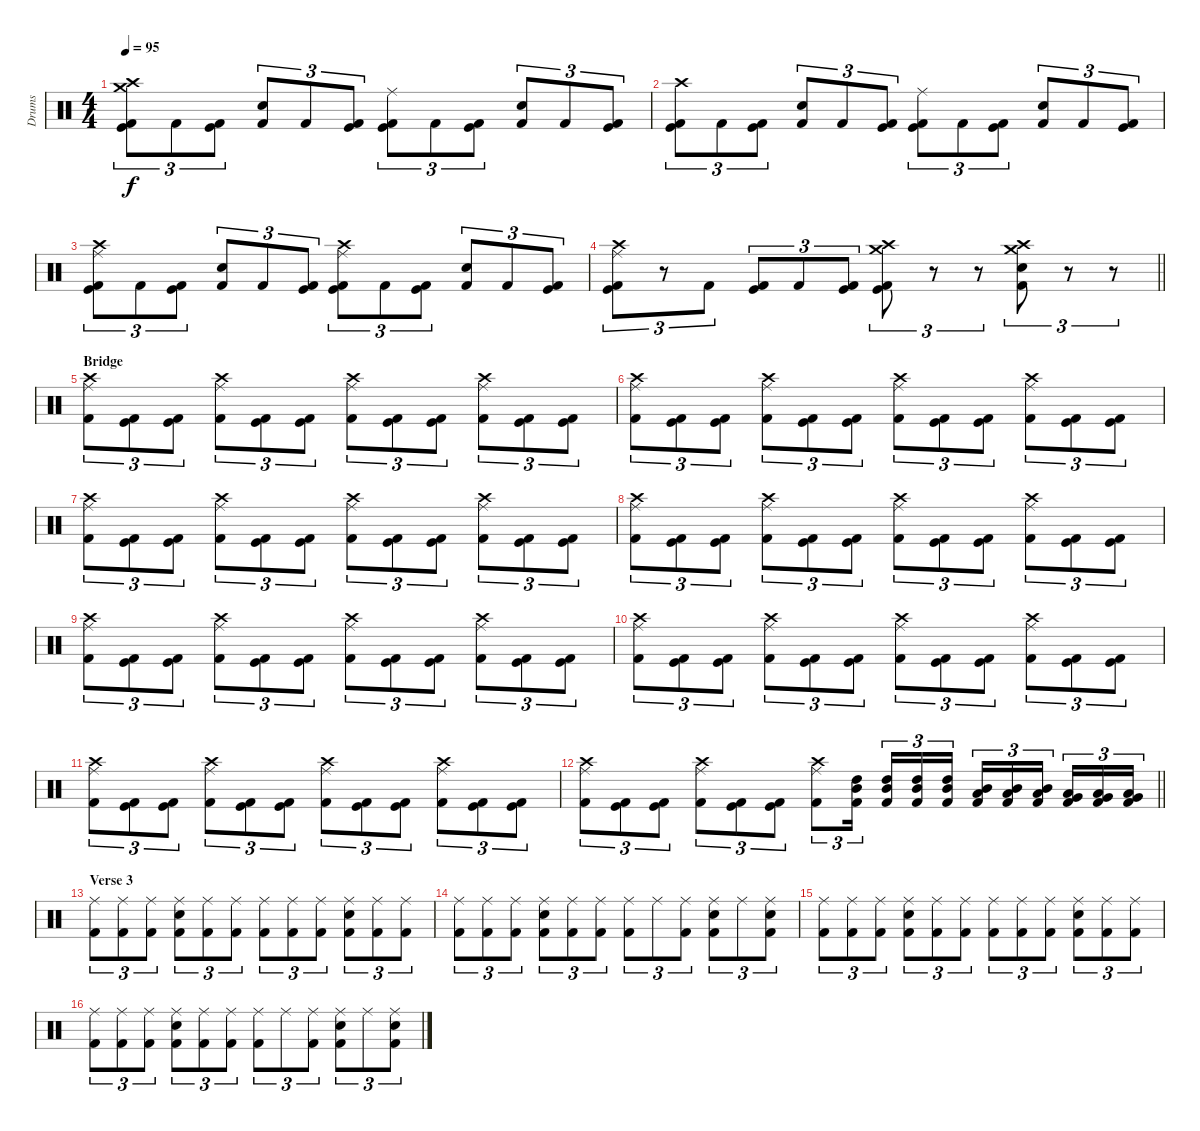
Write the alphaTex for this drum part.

\track ("Drums" "Drums") {instrument percussion}
\staff {score}
\articulation defaults
\ts (4 4)
\tempo 95
\clef neutral
\ks c
("Crash medium (hit)" "Kick (hit)" "Kick (hit) 2" "Crash high (hit)").8{tu (3 2) dy f} "Kick (hit) 2".8{tu (3 2)} ("Kick (hit)" "Kick (hit) 2").8{tu (3 2)} ("Snare (hit) 2" "Kick (hit) 2").8{tu (3 2)} "Kick (hit) 2".8{tu (3 2)} ("Kick (hit)" "Kick (hit) 2").8{tu (3 2)} ("Ride (middle)" "Kick (hit)" "Kick (hit) 2").8{tu (3 2)} "Kick (hit) 2".8{tu (3 2)} ("Kick (hit)" "Kick (hit) 2").8{tu (3 2)} ("Snare (hit) 2" "Kick (hit) 2").8{tu (3 2)} "Kick (hit) 2".8{tu (3 2)} ("Kick (hit)" "Kick (hit) 2").8{tu (3 2)} |
("Kick (hit)" "Kick (hit) 2" "Crash high (hit)").8{tu (3 2)} "Kick (hit) 2".8{tu (3 2)} ("Kick (hit)" "Kick (hit) 2").8{tu (3 2)} ("Snare (hit) 2" "Kick (hit) 2").8{tu (3 2)} "Kick (hit) 2".8{tu (3 2)} ("Kick (hit)" "Kick (hit) 2").8{tu (3 2)} ("Ride (middle)" "Kick (hit)" "Kick (hit) 2").8{tu (3 2)} "Kick (hit) 2".8{tu (3 2)} ("Kick (hit)" "Kick (hit) 2").8{tu (3 2)} ("Snare (hit) 2" "Kick (hit) 2").8{tu (3 2)} "Kick (hit) 2".8{tu (3 2)} ("Kick (hit)" "Kick (hit) 2").8{tu (3 2)} |
("Ride (middle)" "Kick (hit)" "Kick (hit) 2" "Crash high (hit)").8{tu (3 2)} "Kick (hit) 2".8{tu (3 2)} ("Kick (hit)" "Kick (hit) 2").8{tu (3 2)} ("Snare (hit) 2" "Kick (hit) 2").8{tu (3 2)} "Kick (hit) 2".8{tu (3 2)} ("Kick (hit)" "Kick (hit) 2").8{tu (3 2)} ("Ride (middle)" "Kick (hit)" "Kick (hit) 2" "Crash high (hit)").8{tu (3 2)} "Kick (hit) 2".8{tu (3 2)} ("Kick (hit)" "Kick (hit) 2").8{tu (3 2)} ("Snare (hit) 2" "Kick (hit) 2").8{tu (3 2)} "Kick (hit) 2".8{tu (3 2)} ("Kick (hit)" "Kick (hit) 2").8{tu (3 2)} |
\barLineRight lightlight
("Ride (middle)" "Kick (hit)" "Kick (hit) 2" "Crash high (hit)").8{tu (3 2)} r.8{tu (3 2)} "Kick (hit) 2".8{tu (3 2)} ("Kick (hit)" "Kick (hit) 2").8{tu (3 2)} "Kick (hit) 2".8{tu (3 2)} ("Kick (hit)" "Kick (hit) 2").8{tu (3 2)} ("Crash medium (hit)" "Kick (hit)" "Kick (hit) 2" "Crash high (hit)").8{tu (3 2)} r.8{tu (3 2)} r.8{tu (3 2)} ("Crash medium (hit)" "Snare (hit) 2" "Kick (hit) 2" "Crash high (hit)").8{tu (3 2)} r.8{tu (3 2)} r.8{tu (3 2)} |
\section ("" "Bridge")
("Ride (middle)" "Kick (hit) 2" "Crash high (hit)").8{tu (3 2)} ("Kick (hit)" "Kick (hit) 2").8{tu (3 2)} ("Kick (hit)" "Kick (hit) 2").8{tu (3 2)} ("Ride (middle)" "Kick (hit) 2" "Crash high (hit)").8{tu (3 2)} ("Kick (hit)" "Kick (hit) 2").8{tu (3 2)} ("Kick (hit)" "Kick (hit) 2").8{tu (3 2)} ("Ride (middle)" "Kick (hit) 2" "Crash high (hit)").8{tu (3 2)} ("Kick (hit)" "Kick (hit) 2").8{tu (3 2)} ("Kick (hit)" "Kick (hit) 2").8{tu (3 2)} ("Ride (middle)" "Kick (hit) 2" "Crash high (hit)").8{tu (3 2)} ("Kick (hit)" "Kick (hit) 2").8{tu (3 2)} ("Kick (hit)" "Kick (hit) 2").8{tu (3 2)} |
("Ride (middle)" "Kick (hit) 2" "Crash high (hit)").8{tu (3 2)} ("Kick (hit)" "Kick (hit) 2").8{tu (3 2)} ("Kick (hit)" "Kick (hit) 2").8{tu (3 2)} ("Ride (middle)" "Kick (hit) 2" "Crash high (hit)").8{tu (3 2)} ("Kick (hit)" "Kick (hit) 2").8{tu (3 2)} ("Kick (hit)" "Kick (hit) 2").8{tu (3 2)} ("Ride (middle)" "Kick (hit) 2" "Crash high (hit)").8{tu (3 2)} ("Kick (hit)" "Kick (hit) 2").8{tu (3 2)} ("Kick (hit)" "Kick (hit) 2").8{tu (3 2)} ("Ride (middle)" "Kick (hit) 2" "Crash high (hit)").8{tu (3 2)} ("Kick (hit)" "Kick (hit) 2").8{tu (3 2)} ("Kick (hit)" "Kick (hit) 2").8{tu (3 2)} |
("Ride (middle)" "Kick (hit) 2" "Crash high (hit)").8{tu (3 2)} ("Kick (hit)" "Kick (hit) 2").8{tu (3 2)} ("Kick (hit)" "Kick (hit) 2").8{tu (3 2)} ("Ride (middle)" "Kick (hit) 2" "Crash high (hit)").8{tu (3 2)} ("Kick (hit)" "Kick (hit) 2").8{tu (3 2)} ("Kick (hit)" "Kick (hit) 2").8{tu (3 2)} ("Ride (middle)" "Kick (hit) 2" "Crash high (hit)").8{tu (3 2)} ("Kick (hit)" "Kick (hit) 2").8{tu (3 2)} ("Kick (hit)" "Kick (hit) 2").8{tu (3 2)} ("Ride (middle)" "Kick (hit) 2" "Crash high (hit)").8{tu (3 2)} ("Kick (hit)" "Kick (hit) 2").8{tu (3 2)} ("Kick (hit)" "Kick (hit) 2").8{tu (3 2)} |
("Ride (middle)" "Kick (hit) 2" "Crash high (hit)").8{tu (3 2)} ("Kick (hit)" "Kick (hit) 2").8{tu (3 2)} ("Kick (hit)" "Kick (hit) 2").8{tu (3 2)} ("Ride (middle)" "Kick (hit) 2" "Crash high (hit)").8{tu (3 2)} ("Kick (hit)" "Kick (hit) 2").8{tu (3 2)} ("Kick (hit)" "Kick (hit) 2").8{tu (3 2)} ("Ride (middle)" "Kick (hit) 2" "Crash high (hit)").8{tu (3 2)} ("Kick (hit)" "Kick (hit) 2").8{tu (3 2)} ("Kick (hit)" "Kick (hit) 2").8{tu (3 2)} ("Ride (middle)" "Kick (hit) 2" "Crash high (hit)").8{tu (3 2)} ("Kick (hit)" "Kick (hit) 2").8{tu (3 2)} ("Kick (hit)" "Kick (hit) 2").8{tu (3 2)} |
("Ride (middle)" "Kick (hit) 2" "Crash high (hit)").8{tu (3 2)} ("Kick (hit)" "Kick (hit) 2").8{tu (3 2)} ("Kick (hit)" "Kick (hit) 2").8{tu (3 2)} ("Ride (middle)" "Kick (hit) 2" "Crash high (hit)").8{tu (3 2)} ("Kick (hit)" "Kick (hit) 2").8{tu (3 2)} ("Kick (hit)" "Kick (hit) 2").8{tu (3 2)} ("Ride (middle)" "Kick (hit) 2" "Crash high (hit)").8{tu (3 2)} ("Kick (hit)" "Kick (hit) 2").8{tu (3 2)} ("Kick (hit)" "Kick (hit) 2").8{tu (3 2)} ("Ride (middle)" "Kick (hit) 2" "Crash high (hit)").8{tu (3 2)} ("Kick (hit)" "Kick (hit) 2").8{tu (3 2)} ("Kick (hit)" "Kick (hit) 2").8{tu (3 2)} |
("Ride (middle)" "Kick (hit) 2" "Crash high (hit)").8{tu (3 2)} ("Kick (hit)" "Kick (hit) 2").8{tu (3 2)} ("Kick (hit)" "Kick (hit) 2").8{tu (3 2)} ("Ride (middle)" "Kick (hit) 2" "Crash high (hit)").8{tu (3 2)} ("Kick (hit)" "Kick (hit) 2").8{tu (3 2)} ("Kick (hit)" "Kick (hit) 2").8{tu (3 2)} ("Ride (middle)" "Kick (hit) 2" "Crash high (hit)").8{tu (3 2)} ("Kick (hit)" "Kick (hit) 2").8{tu (3 2)} ("Kick (hit)" "Kick (hit) 2").8{tu (3 2)} ("Ride (middle)" "Kick (hit) 2" "Crash high (hit)").8{tu (3 2)} ("Kick (hit)" "Kick (hit) 2").8{tu (3 2)} ("Kick (hit)" "Kick (hit) 2").8{tu (3 2)} |
("Ride (middle)" "Kick (hit) 2" "Crash high (hit)").8{tu (3 2)} ("Kick (hit)" "Kick (hit) 2").8{tu (3 2)} ("Kick (hit)" "Kick (hit) 2").8{tu (3 2)} ("Ride (middle)" "Kick (hit) 2" "Crash high (hit)").8{tu (3 2)} ("Kick (hit)" "Kick (hit) 2").8{tu (3 2)} ("Kick (hit)" "Kick (hit) 2").8{tu (3 2)} ("Ride (middle)" "Kick (hit) 2" "Crash high (hit)").8{tu (3 2)} ("Kick (hit)" "Kick (hit) 2").8{tu (3 2)} ("Kick (hit)" "Kick (hit) 2").8{tu (3 2)} ("Ride (middle)" "Kick (hit) 2" "Crash high (hit)").8{tu (3 2)} ("Kick (hit)" "Kick (hit) 2").8{tu (3 2)} ("Kick (hit)" "Kick (hit) 2").8{tu (3 2)} |
\barLineRight lightlight
("Ride (middle)" "Kick (hit) 2" "Crash high (hit)").8{tu (3 2)} ("Kick (hit)" "Kick (hit) 2").8{tu (3 2)} ("Kick (hit)" "Kick (hit) 2").8{tu (3 2)} ("Ride (middle)" "Kick (hit) 2" "Crash high (hit)").8{tu (3 2)} ("Kick (hit)" "Kick (hit) 2").8{tu (3 2)} ("Kick (hit)" "Kick (hit) 2").8{tu (3 2)} ("Ride (middle)" "Kick (hit) 2" "Crash high (hit)").8{tu (3 2)} ("Mid Tom (hit)" "High Tom (hit)" "Kick (hit) 2").16{tu (3 2) beam splitsecondary} ("Mid Tom (hit)" "High Tom (hit)" "Kick (hit) 2").16{tu (3 2)} ("Mid Tom (hit)" "High Tom (hit)" "Kick (hit) 2").16{tu (3 2)} ("Mid Tom (hit)" "High Tom (hit)" "Kick (hit) 2").16{tu (3 2)} ("Low Tom (hit)" "Mid Tom (hit)" "Kick (hit) 2").16{tu (3 2)} ("Low Tom (hit)" "Mid Tom (hit)" "Kick (hit) 2").16{tu (3 2)} ("Low Tom (hit)" "Mid Tom (hit)" "Kick (hit) 2").16{tu (3 2) beam splitsecondary} ("Very Low Tom (hit)" "Low Tom (hit)" "Kick (hit) 2").16{tu (3 2)} ("Very Low Tom (hit)" "Low Tom (hit)" "Kick (hit) 2").16{tu (3 2)} ("Very Low Tom (hit)" "Low Tom (hit)" "Kick (hit) 2").16{tu (3 2)} |
\section ("" "Verse 3")
("Ride (middle)" "Kick (hit) 2").8{tu (3 2)} ("Ride (middle)" "Kick (hit) 2").8{tu (3 2)} ("Ride (middle)" "Kick (hit) 2").8{tu (3 2)} ("Ride (middle)" "Kick (hit) 2" "Electric Snare (hit)").8{tu (3 2)} ("Ride (middle)" "Kick (hit) 2").8{tu (3 2)} ("Ride (middle)" "Kick (hit) 2").8{tu (3 2)} ("Ride (middle)" "Kick (hit) 2").8{tu (3 2)} ("Ride (middle)" "Kick (hit) 2").8{tu (3 2)} ("Ride (middle)" "Kick (hit) 2").8{tu (3 2)} ("Ride (middle)" "Kick (hit) 2" "Electric Snare (hit)").8{tu (3 2)} ("Ride (middle)" "Kick (hit) 2").8{tu (3 2)} ("Ride (middle)" "Kick (hit) 2").8{tu (3 2)} |
("Ride (middle)" "Kick (hit) 2").8{tu (3 2)} ("Ride (middle)" "Kick (hit) 2").8{tu (3 2)} ("Ride (middle)" "Kick (hit) 2").8{tu (3 2)} ("Ride (middle)" "Kick (hit) 2" "Electric Snare (hit)").8{tu (3 2)} ("Ride (middle)" "Kick (hit) 2").8{tu (3 2)} ("Ride (middle)" "Kick (hit) 2").8{tu (3 2)} ("Ride (middle)" "Kick (hit) 2").8{tu (3 2)} "Ride (middle)".8{tu (3 2)} ("Ride (middle)" "Kick (hit) 2").8{tu (3 2)} ("Ride (middle)" "Kick (hit) 2" "Electric Snare (hit)").8{tu (3 2)} "Ride (middle)".8{tu (3 2)} ("Ride (middle)" "Kick (hit) 2" "Snare (hit) 2").8{tu (3 2)} |
("Ride (middle)" "Kick (hit) 2").8{tu (3 2)} ("Ride (middle)" "Kick (hit) 2").8{tu (3 2)} ("Ride (middle)" "Kick (hit) 2").8{tu (3 2)} ("Ride (middle)" "Kick (hit) 2" "Electric Snare (hit)").8{tu (3 2)} ("Ride (middle)" "Kick (hit) 2").8{tu (3 2)} ("Ride (middle)" "Kick (hit) 2").8{tu (3 2)} ("Ride (middle)" "Kick (hit) 2").8{tu (3 2)} ("Ride (middle)" "Kick (hit) 2").8{tu (3 2)} ("Ride (middle)" "Kick (hit) 2").8{tu (3 2)} ("Ride (middle)" "Kick (hit) 2" "Electric Snare (hit)").8{tu (3 2)} ("Ride (middle)" "Kick (hit) 2").8{tu (3 2)} ("Ride (middle)" "Kick (hit) 2").8{tu (3 2)} |
("Ride (middle)" "Kick (hit) 2").8{tu (3 2)} ("Ride (middle)" "Kick (hit) 2").8{tu (3 2)} ("Ride (middle)" "Kick (hit) 2").8{tu (3 2)} ("Ride (middle)" "Kick (hit) 2" "Electric Snare (hit)").8{tu (3 2)} ("Ride (middle)" "Kick (hit) 2").8{tu (3 2)} ("Ride (middle)" "Kick (hit) 2").8{tu (3 2)} ("Ride (middle)" "Kick (hit) 2").8{tu (3 2)} "Ride (middle)".8{tu (3 2)} ("Ride (middle)" "Kick (hit) 2").8{tu (3 2)} ("Ride (middle)" "Kick (hit) 2" "Electric Snare (hit)").8{tu (3 2)} "Ride (middle)".8{tu (3 2)} ("Ride (middle)" "Kick (hit) 2" "Snare (hit) 2").8{tu (3 2)}
